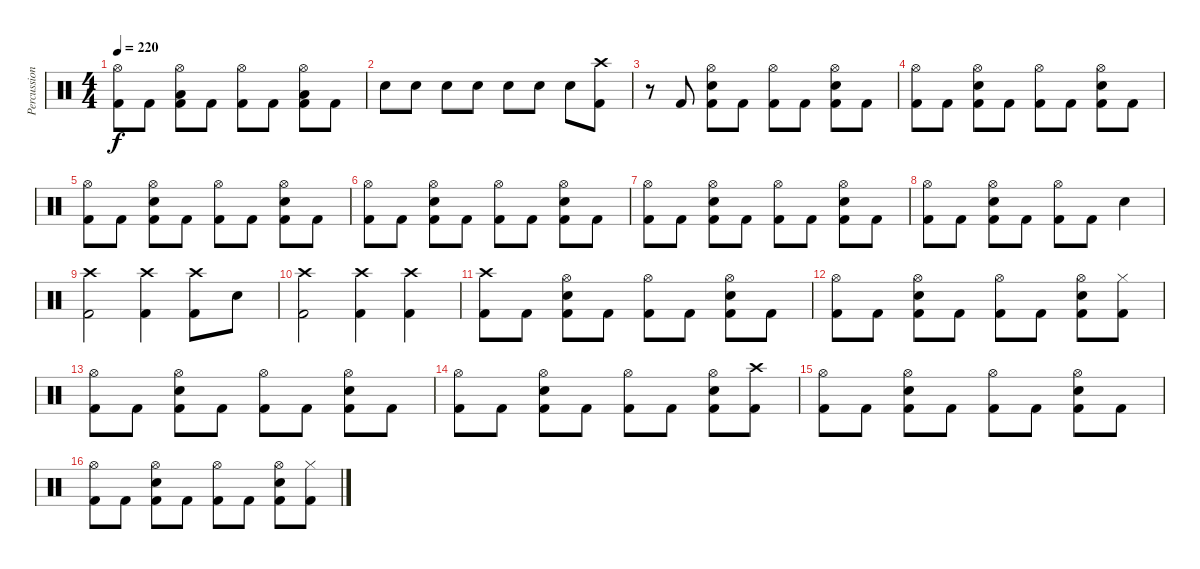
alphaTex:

\track ("Percussions" "Percussion") {instrument percussion}
\staff {score}
\articulation defaults
\ts (4 4)
\tempo 220
\clef neutral
\ks c
("Hi-Hat (open)" "Kick (hit) 2").8{dy f} "Kick (hit) 2".8 ("Hi-Hat (open)" "Low Tom (hit)" "Kick (hit) 2").8 "Kick (hit) 2".8 ("Hi-Hat (open)" "Kick (hit) 2").8 "Kick (hit) 2".8 ("Hi-Hat (open)" "Low Tom (hit)" "Kick (hit) 2").8 "Kick (hit) 2".8 |
"Electric Snare (hit)".8 "Electric Snare (hit)".8 "Electric Snare (hit)".8 "Electric Snare (hit)".8 "Electric Snare (hit)".8 "Electric Snare (hit)".8 "Electric Snare (hit)".8 ("Crash high (hit)" "Kick (hit) 2").8 |
r.8 "Kick (hit) 2".8 ("Hi-Hat (open)" "Electric Snare (hit)" "Kick (hit) 2").8 "Kick (hit) 2".8 ("Hi-Hat (open)" "Kick (hit) 2").8 "Kick (hit) 2".8 ("Hi-Hat (open)" "Electric Snare (hit)" "Kick (hit) 2").8 "Kick (hit) 2".8 |
("Hi-Hat (open)" "Kick (hit) 2").8 "Kick (hit) 2".8 ("Hi-Hat (open)" "Electric Snare (hit)" "Kick (hit) 2").8 "Kick (hit) 2".8 ("Hi-Hat (open)" "Kick (hit) 2").8 "Kick (hit) 2".8 ("Hi-Hat (open)" "Electric Snare (hit)" "Kick (hit) 2").8 "Kick (hit) 2".8 |
("Hi-Hat (open)" "Kick (hit) 2").8 "Kick (hit) 2".8 ("Hi-Hat (open)" "Electric Snare (hit)" "Kick (hit) 2").8 "Kick (hit) 2".8 ("Hi-Hat (open)" "Kick (hit) 2").8 "Kick (hit) 2".8 ("Hi-Hat (open)" "Electric Snare (hit)" "Kick (hit) 2").8 "Kick (hit) 2".8 |
("Hi-Hat (open)" "Kick (hit) 2").8 "Kick (hit) 2".8 ("Hi-Hat (open)" "Electric Snare (hit)" "Kick (hit) 2").8 "Kick (hit) 2".8 ("Hi-Hat (open)" "Kick (hit) 2").8 "Kick (hit) 2".8 ("Hi-Hat (open)" "Electric Snare (hit)" "Kick (hit) 2").8 "Kick (hit) 2".8 |
("Hi-Hat (open)" "Kick (hit) 2").8 "Kick (hit) 2".8 ("Hi-Hat (open)" "Electric Snare (hit)" "Kick (hit) 2").8 "Kick (hit) 2".8 ("Hi-Hat (open)" "Kick (hit) 2").8 "Kick (hit) 2".8 ("Hi-Hat (open)" "Electric Snare (hit)" "Kick (hit) 2").8 "Kick (hit) 2".8 |
("Hi-Hat (open)" "Kick (hit) 2").8 "Kick (hit) 2".8 ("Hi-Hat (open)" "Electric Snare (hit)" "Kick (hit) 2").8 "Kick (hit) 2".8 ("Hi-Hat (open)" "Kick (hit) 2").8 "Kick (hit) 2".8 "Electric Snare (hit)".4 |
("Crash high (hit)" "Kick (hit) 2").2 ("Crash high (hit)" "Kick (hit) 2").4 ("Crash high (hit)" "Kick (hit) 2").8 "Electric Snare (hit)".8 |
("Crash high (hit)" "Kick (hit) 2").2 ("Crash high (hit)" "Kick (hit) 2").4 ("Crash high (hit)" "Kick (hit) 2").4 |
("Crash high (hit)" "Kick (hit) 2").8 "Kick (hit) 2".8 ("Hi-Hat (open)" "Electric Snare (hit)" "Kick (hit) 2").8 "Kick (hit) 2".8 ("Hi-Hat (open)" "Kick (hit) 2").8 "Kick (hit) 2".8 ("Hi-Hat (open)" "Electric Snare (hit)" "Kick (hit) 2").8 "Kick (hit) 2".8 |
("Hi-Hat (open)" "Kick (hit) 2").8 "Kick (hit) 2".8 ("Hi-Hat (open)" "Electric Snare (hit)" "Kick (hit) 2").8 "Kick (hit) 2".8 ("Hi-Hat (open)" "Kick (hit) 2").8 "Kick (hit) 2".8 ("Hi-Hat (open)" "Electric Snare (hit)" "Kick (hit) 2").8 ("Hi-Hat (closed)" "Kick (hit) 2").8 |
("Hi-Hat (open)" "Kick (hit) 2").8 "Kick (hit) 2".8 ("Hi-Hat (open)" "Electric Snare (hit)" "Kick (hit) 2").8 "Kick (hit) 2".8 ("Hi-Hat (open)" "Kick (hit) 2").8 "Kick (hit) 2".8 ("Hi-Hat (open)" "Electric Snare (hit)" "Kick (hit) 2").8 "Kick (hit) 2".8 |
("Hi-Hat (open)" "Kick (hit) 2").8 "Kick (hit) 2".8 ("Hi-Hat (open)" "Electric Snare (hit)" "Kick (hit) 2").8 "Kick (hit) 2".8 ("Hi-Hat (open)" "Kick (hit) 2").8 "Kick (hit) 2".8 ("Hi-Hat (open)" "Electric Snare (hit)" "Kick (hit) 2").8 ("Crash high (hit)" "Kick (hit) 2").8 |
("Hi-Hat (open)" "Kick (hit) 2").8 "Kick (hit) 2".8 ("Hi-Hat (open)" "Electric Snare (hit)" "Kick (hit) 2").8 "Kick (hit) 2".8 ("Hi-Hat (open)" "Kick (hit) 2").8 "Kick (hit) 2".8 ("Hi-Hat (open)" "Electric Snare (hit)" "Kick (hit) 2").8 "Kick (hit) 2".8 |
("Hi-Hat (open)" "Kick (hit) 2").8 "Kick (hit) 2".8 ("Hi-Hat (open)" "Electric Snare (hit)" "Kick (hit) 2").8 "Kick (hit) 2".8 ("Hi-Hat (open)" "Kick (hit) 2").8 "Kick (hit) 2".8 ("Hi-Hat (open)" "Electric Snare (hit)" "Kick (hit) 2").8 ("Hi-Hat (closed)" "Kick (hit) 2").8
